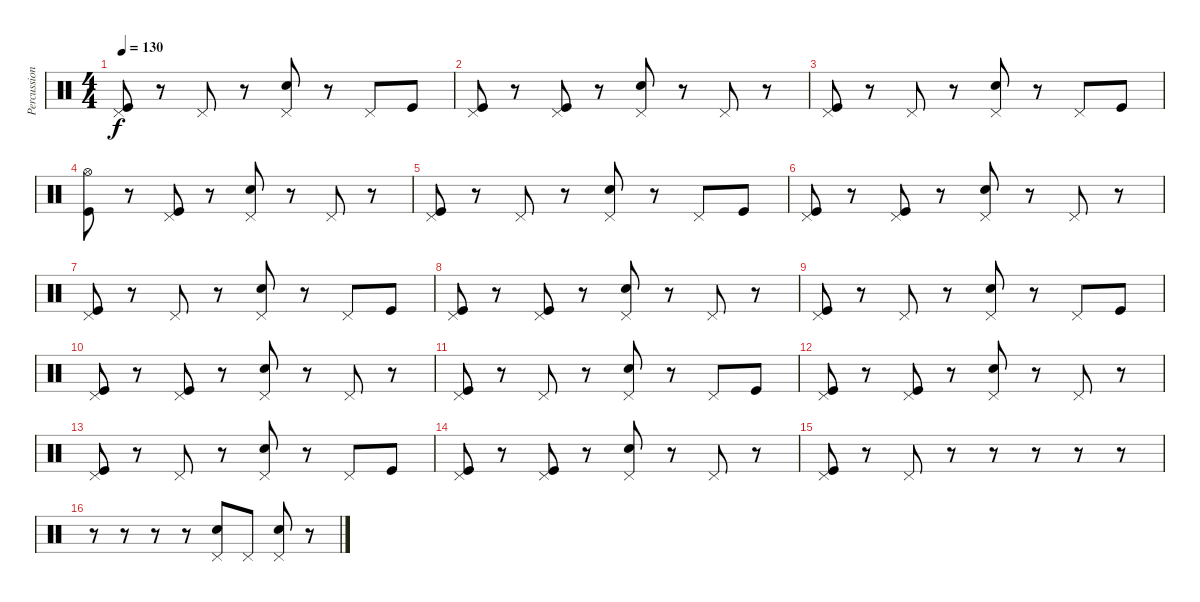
\track ("Percussioni" "Percussion") {instrument percussion}
\staff {score}
\articulation defaults
\ts (4 4)
\tempo 130
\clef neutral
\ks c
("Kick (hit)" "Pedal Hi-Hat (hit)").8{dy f} r.8 "Pedal Hi-Hat (hit)".8 r.8 ("Snare (hit) 2" "Pedal Hi-Hat (hit)").8 r.8 "Pedal Hi-Hat (hit)".8 "Kick (hit)".8 |
("Pedal Hi-Hat (hit)" "Kick (hit)").8 r.8 ("Kick (hit)" "Pedal Hi-Hat (hit)").8 r.8 ("Snare (hit) 2" "Pedal Hi-Hat (hit)").8 r.8 "Pedal Hi-Hat (hit)".8 r.8 |
("Kick (hit)" "Pedal Hi-Hat (hit)").8 r.8 "Pedal Hi-Hat (hit)".8 r.8 ("Snare (hit) 2" "Pedal Hi-Hat (hit)").8 r.8 "Pedal Hi-Hat (hit)".8 "Kick (hit)".8 |
("Hi-Hat (open)" "Kick (hit)").8 r.8 ("Kick (hit)" "Pedal Hi-Hat (hit)").8 r.8 ("Snare (hit) 2" "Pedal Hi-Hat (hit)").8 r.8 "Pedal Hi-Hat (hit)".8 r.8 |
("Kick (hit)" "Pedal Hi-Hat (hit)").8 r.8 "Pedal Hi-Hat (hit)".8 r.8 ("Snare (hit) 2" "Pedal Hi-Hat (hit)").8 r.8 "Pedal Hi-Hat (hit)".8 "Kick (hit)".8 |
("Pedal Hi-Hat (hit)" "Kick (hit)").8 r.8 ("Kick (hit)" "Pedal Hi-Hat (hit)").8 r.8 ("Snare (hit) 2" "Pedal Hi-Hat (hit)").8 r.8 "Pedal Hi-Hat (hit)".8 r.8 |
("Kick (hit)" "Pedal Hi-Hat (hit)").8 r.8 "Pedal Hi-Hat (hit)".8 r.8 ("Snare (hit) 2" "Pedal Hi-Hat (hit)").8 r.8 "Pedal Hi-Hat (hit)".8 "Kick (hit)".8 |
("Pedal Hi-Hat (hit)" "Kick (hit)").8 r.8 ("Kick (hit)" "Pedal Hi-Hat (hit)").8 r.8 ("Snare (hit) 2" "Pedal Hi-Hat (hit)").8 r.8 "Pedal Hi-Hat (hit)".8 r.8 |
("Kick (hit)" "Pedal Hi-Hat (hit)").8 r.8 "Pedal Hi-Hat (hit)".8 r.8 ("Snare (hit) 2" "Pedal Hi-Hat (hit)").8 r.8 "Pedal Hi-Hat (hit)".8 "Kick (hit)".8 |
("Pedal Hi-Hat (hit)" "Kick (hit)").8 r.8 ("Kick (hit)" "Pedal Hi-Hat (hit)").8 r.8 ("Snare (hit) 2" "Pedal Hi-Hat (hit)").8 r.8 "Pedal Hi-Hat (hit)".8 r.8 |
("Kick (hit)" "Pedal Hi-Hat (hit)").8 r.8 "Pedal Hi-Hat (hit)".8 r.8 ("Snare (hit) 2" "Pedal Hi-Hat (hit)").8 r.8 "Pedal Hi-Hat (hit)".8 "Kick (hit)".8 |
("Pedal Hi-Hat (hit)" "Kick (hit)").8 r.8 ("Kick (hit)" "Pedal Hi-Hat (hit)").8 r.8 ("Snare (hit) 2" "Pedal Hi-Hat (hit)").8 r.8 "Pedal Hi-Hat (hit)".8 r.8 |
("Kick (hit)" "Pedal Hi-Hat (hit)").8 r.8 "Pedal Hi-Hat (hit)".8 r.8 ("Snare (hit) 2" "Pedal Hi-Hat (hit)").8 r.8 "Pedal Hi-Hat (hit)".8 "Kick (hit)".8 |
("Pedal Hi-Hat (hit)" "Kick (hit)").8 r.8 ("Kick (hit)" "Pedal Hi-Hat (hit)").8 r.8 ("Snare (hit) 2" "Pedal Hi-Hat (hit)").8 r.8 "Pedal Hi-Hat (hit)".8 r.8 |
("Kick (hit)" "Pedal Hi-Hat (hit)").8 r.8 "Pedal Hi-Hat (hit)".8 r.8 r.8 r.8 r.8 r.8 |
r.8 r.8 r.8 r.8 ("Snare (hit) 2" "Pedal Hi-Hat (hit)").8 "Pedal Hi-Hat (hit)".8 ("Snare (hit) 2" "Pedal Hi-Hat (hit)").8 r.8
